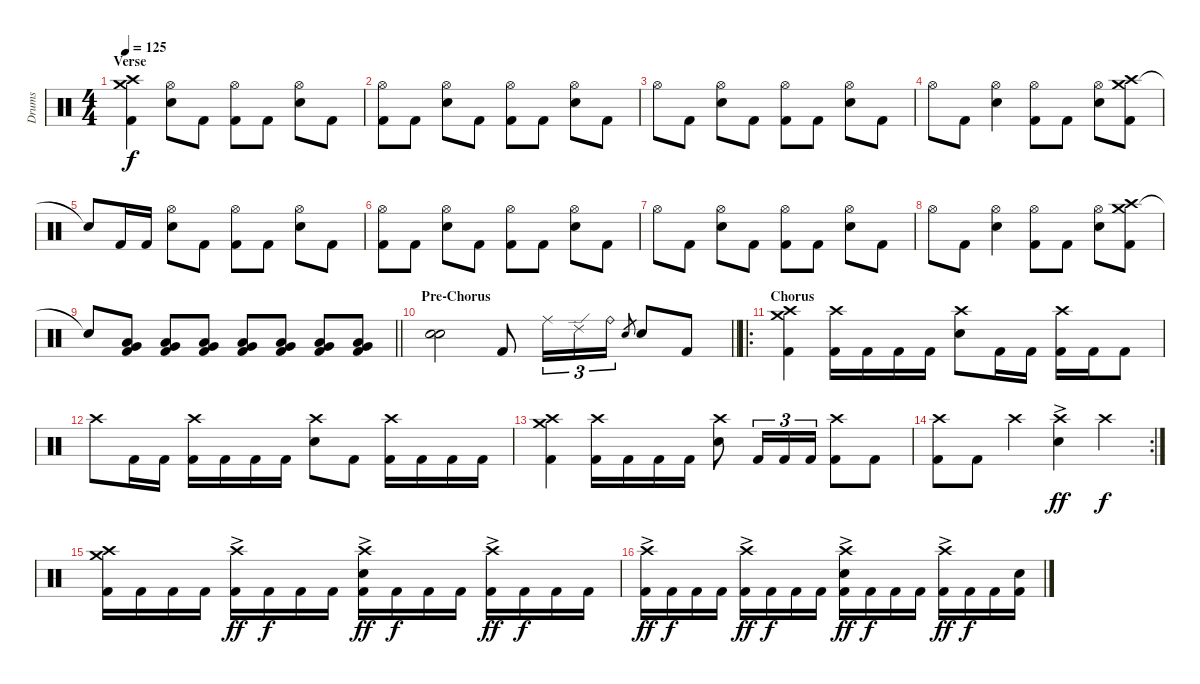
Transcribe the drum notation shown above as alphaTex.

\track ("Drums" "Drums") {instrument percussion}
\staff {score}
\articulation defaults
\ts (4 4)
\section ("" "Verse")
\tempo 125
\clef neutral
\ks c
("Crash medium (hit)" "Crash high (hit)" "Kick (hit) 2").4{dy f} ("Hi-Hat (open)" "Electric Snare (hit)").8 "Kick (hit) 2".8 ("Hi-Hat (open)" "Kick (hit) 2").8 "Kick (hit) 2".8 ("Hi-Hat (open)" "Electric Snare (hit)").8 "Kick (hit) 2".8 |
("Hi-Hat (open)" "Kick (hit) 2").8 "Kick (hit) 2".8 ("Hi-Hat (open)" "Electric Snare (hit)").8 "Kick (hit) 2".8 ("Hi-Hat (open)" "Kick (hit) 2").8 "Kick (hit) 2".8 ("Hi-Hat (open)" "Electric Snare (hit)").8 "Kick (hit) 2".8 |
"Hi-Hat (open)".8 "Kick (hit) 2".8 ("Hi-Hat (open)" "Electric Snare (hit)").8 "Kick (hit) 2".8 ("Hi-Hat (open)" "Kick (hit) 2").8 "Kick (hit) 2".8 ("Hi-Hat (open)" "Electric Snare (hit)").8 "Kick (hit) 2".8 |
"Hi-Hat (open)".8 "Kick (hit) 2".8 ("Hi-Hat (open)" "Electric Snare (hit)").4 ("Hi-Hat (open)" "Kick (hit) 2").8 "Kick (hit) 2".8 ("Hi-Hat (open)" "Electric Snare (hit)").8 ("Crash medium (hit)" "Crash high (hit)" "Kick (hit) 2").8 |
"Snare (hit)"{t}.8 "Kick (hit) 2".16 "Kick (hit) 2".16 ("Hi-Hat (open)" "Electric Snare (hit)").8 "Kick (hit) 2".8 ("Hi-Hat (open)" "Kick (hit) 2").8 "Kick (hit) 2".8 ("Hi-Hat (open)" "Electric Snare (hit)").8 "Kick (hit) 2".8 |
("Hi-Hat (open)" "Kick (hit) 2").8 "Kick (hit) 2".8 ("Hi-Hat (open)" "Electric Snare (hit)").8 "Kick (hit) 2".8 ("Hi-Hat (open)" "Kick (hit) 2").8 "Kick (hit) 2".8 ("Hi-Hat (open)" "Electric Snare (hit)").8 "Kick (hit) 2".8 |
"Hi-Hat (open)".8 "Kick (hit) 2".8 ("Hi-Hat (open)" "Electric Snare (hit)").8 "Kick (hit) 2".8 ("Hi-Hat (open)" "Kick (hit) 2").8 "Kick (hit) 2".8 ("Hi-Hat (open)" "Electric Snare (hit)").8 "Kick (hit) 2".8 |
"Hi-Hat (open)".8 "Kick (hit) 2".8 ("Hi-Hat (open)" "Electric Snare (hit)").4 ("Hi-Hat (open)" "Kick (hit) 2").8 "Kick (hit) 2".8 ("Hi-Hat (open)" "Electric Snare (hit)").8 ("Crash medium (hit)" "Crash high (hit)" "Kick (hit) 2").8 |
\barLineRight lightlight "Snare (hit)"{t}.8
("Low Tom (hit)" "Very Low Tom (hit)" "Kick (hit) 2").8 ("Low Tom (hit)" "Very Low Tom (hit)" "Kick (hit) 2").8 ("Low Tom (hit)" "Very Low Tom (hit)" "Kick (hit) 2").8 ("Low Tom (hit)" "Very Low Tom (hit)" "Kick (hit) 2").8 ("Low Tom (hit)" "Very Low Tom (hit)" "Kick (hit) 2").8 ("Low Tom (hit)" "Very Low Tom (hit)" "Kick (hit) 2").8 ("Low Tom (hit)" "Very Low Tom (hit)" "Kick (hit) 2").8 |
\section ("" "Pre-Chorus")
\barLineRight lightlight
("Electric Snare (hit)" "Electric Snare (hit)").2{bu 60} "Kick (hit) 2".8 "Ride (middle)".16{tu (3 2)} "Ride (edge) 2".16{tu (3 2)} "Ride (bell)".16{tu (3 2)} "Electric Snare (hit)".8{gr} "Electric Snare (hit)".8 "Kick (hit) 2".8 |
\ro
\section ("" "Chorus")
("Crash medium (hit)" "Crash high (hit)" "Kick (hit) 2").4 ("Crash high (hit)" "Kick (hit) 2").16 "Kick (hit) 2".16 "Kick (hit) 2".16 "Kick (hit) 2".16 ("Crash high (hit)" "Electric Snare (hit)").8 "Kick (hit) 2".16 "Kick (hit) 2".16 ("Crash high (hit)" "Kick (hit) 2").16 "Kick (hit) 2".16 "Kick (hit) 2".8 |
"Crash high (hit)".8 "Kick (hit) 2".16 "Kick (hit) 2".16 ("Crash high (hit)" "Kick (hit) 2").16 "Kick (hit) 2".16 "Kick (hit) 2".16 "Kick (hit) 2".16 ("Crash high (hit)" "Electric Snare (hit)").8 "Kick (hit) 2".8 ("Crash high (hit)" "Kick (hit) 2").16 "Kick (hit) 2".16 "Kick (hit) 2".16 "Kick (hit) 2".16 |
("Crash medium (hit)" "Crash high (hit)" "Kick (hit) 2").4 ("Crash high (hit)" "Kick (hit) 2").16 "Kick (hit) 2".16 "Kick (hit) 2".16 "Kick (hit) 2".16 ("Crash high (hit)" "Electric Snare (hit)").8 "Kick (hit) 2".16{tu (3 2)} "Kick (hit) 2".16{tu (3 2)} "Kick (hit) 2".16{tu (3 2)} ("Crash high (hit)" "Kick (hit) 2").8 "Kick (hit) 2".8 |
\rc 2
("Crash high (hit)" "Kick (hit) 2").8 "Kick (hit) 2".8 "Crash high (hit)".4 ("Crash high (hit)"{ac} "Electric Snare (hit)").4{dy ff} "Crash high (hit)".4{dy f} |
("Crash medium (hit)" "Crash high (hit)" "Kick (hit) 2").16 "Kick (hit) 2".16 "Kick (hit) 2".16 "Kick (hit) 2".16 ("Crash high (hit)"{ac} "Kick (hit) 2").16{dy ff} "Kick (hit) 2".16{dy f} "Kick (hit) 2".16 "Kick (hit) 2".16 ("Crash high (hit)"{ac} "Electric Snare (hit)" "Kick (hit) 2").16{dy ff} "Kick (hit) 2".16{dy f} "Kick (hit) 2".16 "Kick (hit) 2".16 ("Crash high (hit)"{ac} "Kick (hit) 2").16{dy ff} "Kick (hit) 2".16{dy f} "Kick (hit) 2".16 "Kick (hit) 2".16 |
("Crash high (hit)"{ac} "Kick (hit) 2").16{dy ff} "Kick (hit) 2".16{dy f} "Kick (hit) 2".16 "Kick (hit) 2".16 ("Crash high (hit)"{ac} "Kick (hit) 2").16{dy ff} "Kick (hit) 2".16{dy f} "Kick (hit) 2".16 "Kick (hit) 2".16 ("Crash high (hit)"{ac} "Electric Snare (hit)" "Kick (hit) 2").16{dy ff} "Kick (hit) 2".16{dy f} "Kick (hit) 2".16 "Kick (hit) 2".16 ("Crash high (hit)"{ac} "Kick (hit) 2").16{dy ff} "Kick (hit) 2".16{dy f} "Kick (hit) 2".16 ("Electric Snare (hit)" "Kick (hit) 2").16
